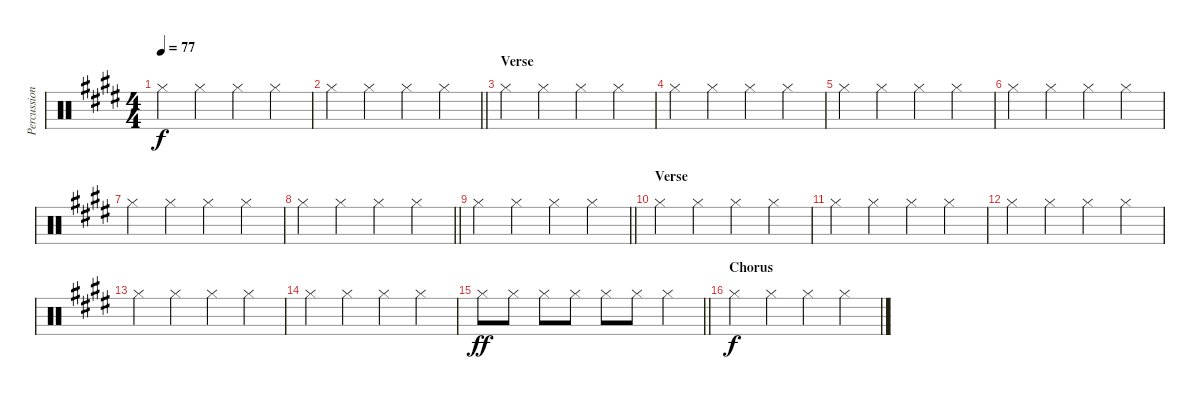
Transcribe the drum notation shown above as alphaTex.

\track ("Percussion" "Percussion") {instrument percussion}
\staff {score}
\articulation defaults
\ts (4 4)
\tempo 77
\clef neutral
\ks c#minor "Hi-Hat (closed)".4{dy f} "Hi-Hat (closed)".4 "Hi-Hat (closed)".4 "Hi-Hat (closed)".4
|
\barLineRight lightlight "Hi-Hat (closed)".4 "Hi-Hat (closed)".4 "Hi-Hat (closed)".4 "Hi-Hat (closed)".4
|
\section ("" "Verse")
"Hi-Hat (closed)".4 "Hi-Hat (closed)".4 "Hi-Hat (closed)".4 "Hi-Hat (closed)".4 |
"Hi-Hat (closed)".4 "Hi-Hat (closed)".4 "Hi-Hat (closed)".4 "Hi-Hat (closed)".4 |
"Hi-Hat (closed)".4 "Hi-Hat (closed)".4 "Hi-Hat (closed)".4 "Hi-Hat (closed)".4 |
"Hi-Hat (closed)".4 "Hi-Hat (closed)".4 "Hi-Hat (closed)".4 "Hi-Hat (closed)".4 |
"Hi-Hat (closed)".4 "Hi-Hat (closed)".4 "Hi-Hat (closed)".4 "Hi-Hat (closed)".4 |
\barLineRight lightlight "Hi-Hat (closed)".4 "Hi-Hat (closed)".4 "Hi-Hat (closed)".4 "Hi-Hat (closed)".4
|
\barLineRight lightlight "Hi-Hat (closed)".4 "Hi-Hat (closed)".4 "Hi-Hat (closed)".4 "Hi-Hat (closed)".4
|
\section ("" "Verse")
"Hi-Hat (closed)".4 "Hi-Hat (closed)".4 "Hi-Hat (closed)".4 "Hi-Hat (closed)".4 |
"Hi-Hat (closed)".4 "Hi-Hat (closed)".4 "Hi-Hat (closed)".4 "Hi-Hat (closed)".4 |
"Hi-Hat (closed)".4 "Hi-Hat (closed)".4 "Hi-Hat (closed)".4 "Hi-Hat (closed)".4 |
"Hi-Hat (closed)".4 "Hi-Hat (closed)".4 "Hi-Hat (closed)".4 "Hi-Hat (closed)".4 |
"Hi-Hat (closed)".4 "Hi-Hat (closed)".4 "Hi-Hat (closed)".4 "Hi-Hat (closed)".4 |
\barLineRight lightlight "Hi-Hat (closed)".8{dy ff} "Hi-Hat (closed)".8 "Hi-Hat (closed)".8 "Hi-Hat (closed)".8 "Hi-Hat (closed)".8 "Hi-Hat (closed)".8 "Hi-Hat (closed)".4
|
\section ("" "Chorus")
"Hi-Hat (closed)".4{dy f} "Hi-Hat (closed)".4 "Hi-Hat (closed)".4 "Hi-Hat (closed)".4
